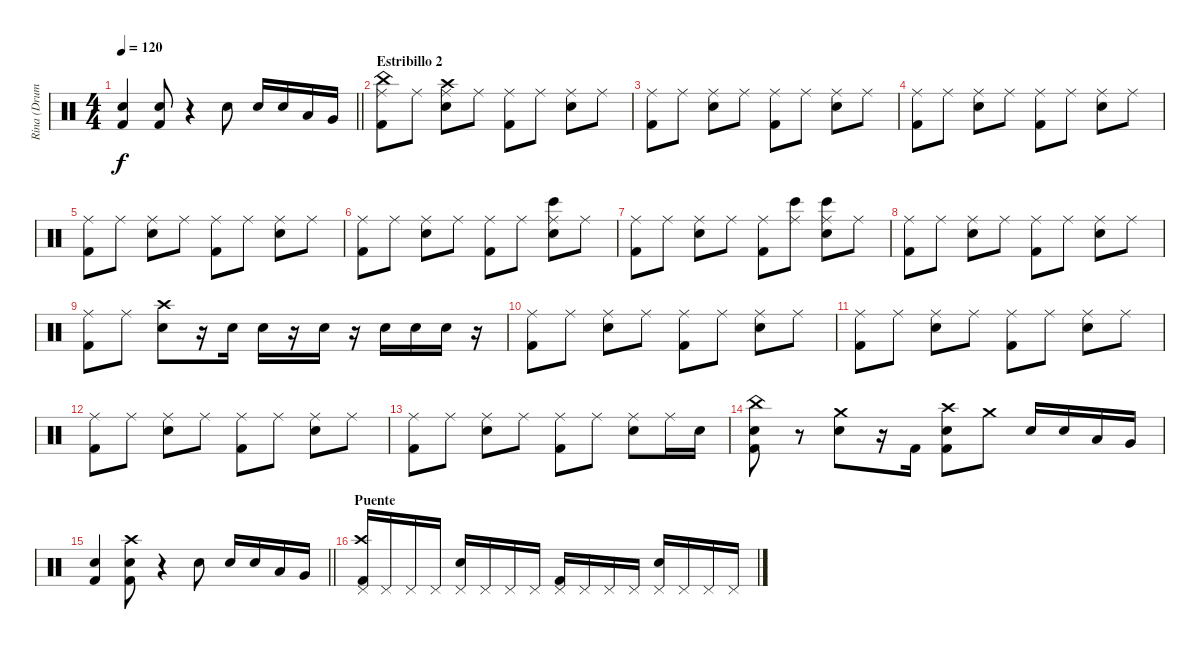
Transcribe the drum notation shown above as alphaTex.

\track ("Rina (Drums)" "Rina (Drum") {instrument percussion}
\staff {score}
\articulation defaults
\ts (4 4)
\tempo 120
\clef neutral
\barLineRight lightlight
\ks c
("Snare (hit) 2" "Kick (hit) 2").4{dy f} ("Snare (hit) 2" "Kick (hit) 2").8 r.4 "Snare (hit) 2".8 "Snare (hit) 2".16 "Snare (hit) 2".16 "Low Tom (hit)".16 "Very Low Tom (hit)".16 |
\section ("" "Estribillo 2")
("China (hit)" "Ride (middle)" "Kick (hit) 2").8 "Ride (middle)".8 ("Crash high (hit)" "Ride (middle)" "Snare (hit) 2").8 "Ride (middle)".8 ("Ride (middle)" "Kick (hit) 2").8 "Ride (middle)".8 ("Ride (middle)" "Snare (hit) 2").8 "Ride (middle)".8 |
("Ride (middle)" "Kick (hit) 2").8 "Ride (middle)".8 ("Ride (middle)" "Snare (hit) 2").8 "Ride (middle)".8 ("Ride (middle)" "Kick (hit) 2").8 "Ride (middle)".8 ("Ride (middle)" "Snare (hit) 2").8 "Ride (middle)".8 |
("Ride (middle)" "Kick (hit) 2").8 "Ride (middle)".8 ("Ride (middle)" "Snare (hit) 2").8 "Ride (middle)".8 ("Ride (middle)" "Kick (hit) 2").8 "Ride (middle)".8 ("Ride (middle)" "Snare (hit) 2").8 "Ride (middle)".8 |
("Ride (middle)" "Kick (hit) 2").8 "Ride (middle)".8 ("Ride (middle)" "Snare (hit) 2").8 "Ride (middle)".8 ("Ride (middle)" "Kick (hit) 2").8 "Ride (middle)".8 ("Ride (middle)" "Snare (hit) 2").8 "Ride (middle)".8 |
("Ride (middle)" "Kick (hit) 2").8 "Ride (middle)".8 ("Ride (middle)" "Snare (hit) 2").8 "Ride (middle)".8 ("Ride (middle)" "Kick (hit) 2").8 "Ride (middle)".8 ("Ride (middle)" "Bongo High (hit)" "Snare (hit) 2").8 "Ride (middle)".8 |
("Ride (middle)" "Kick (hit) 2").8 "Ride (middle)".8 ("Ride (middle)" "Snare (hit) 2").8 "Ride (middle)".8 ("Ride (middle)" "Kick (hit) 2").8 ("Ride (middle)" "Bongo High (hit)").8 ("Ride (middle)" "Bongo High (hit)" "Snare (hit) 2").8 "Ride (middle)".8 |
("Ride (middle)" "Kick (hit) 2").8 "Ride (middle)".8 ("Ride (middle)" "Snare (hit) 2").8 "Ride (middle)".8 ("Ride (middle)" "Kick (hit) 2").8 "Ride (middle)".8 ("Ride (middle)" "Snare (hit) 2").8 "Ride (middle)".8 |
("Ride (middle)" "Kick (hit) 2").8 "Ride (middle)".8 ("Crash high (hit)" "Snare (hit) 2").8 r.16 "Snare (hit) 2".16 "Snare (hit) 2".16 r.16 "Snare (hit) 2".16 r.16 "Snare (hit) 2".16 "Snare (hit) 2".16 "Snare (hit) 2".16 r.16 |
("Ride (middle)" "Kick (hit) 2").8 "Ride (middle)".8 ("Ride (middle)" "Snare (hit) 2").8 "Ride (middle)".8 ("Ride (middle)" "Kick (hit) 2").8 "Ride (middle)".8 ("Ride (middle)" "Snare (hit) 2").8 "Ride (middle)".8 |
("Ride (middle)" "Kick (hit) 2").8 "Ride (middle)".8 ("Ride (middle)" "Snare (hit) 2").8 "Ride (middle)".8 ("Ride (middle)" "Kick (hit) 2").8 "Ride (middle)".8 ("Ride (middle)" "Snare (hit) 2").8 "Ride (middle)".8 |
("Ride (middle)" "Kick (hit) 2").8 "Ride (middle)".8 ("Ride (middle)" "Snare (hit) 2").8 "Ride (middle)".8 ("Ride (middle)" "Kick (hit) 2").8 "Ride (middle)".8 ("Ride (middle)" "Snare (hit) 2").8 "Ride (middle)".8 |
("Ride (middle)" "Kick (hit) 2").8 "Ride (middle)".8 ("Ride (middle)" "Snare (hit) 2").8 "Ride (middle)".8 ("Ride (middle)" "Kick (hit) 2").8 "Ride (middle)".8 ("Ride (middle)" "Snare (hit) 2").8 "Ride (middle)".16 "Snare (hit) 2".16 |
("China (hit)" "Snare (hit) 2" "Kick (hit) 2").8 r.8 ("Crash medium (hit)" "Snare (hit) 2").8 r.16 "Kick (hit) 2".16 ("Crash high (hit)" "Snare (hit) 2" "Kick (hit) 2").8 "Crash medium (hit)".8 "Snare (hit) 2".16 "Snare (hit) 2".16 "Low Tom (hit)".16 "Very Low Tom (hit)".16 |
\barLineRight lightlight
("Snare (hit) 2" "Kick (hit) 2").4 ("Crash high (hit)" "Snare (hit) 2" "Kick (hit) 2").8 r.4 "Snare (hit) 2".8 "Snare (hit) 2".16 "Snare (hit) 2".16 "Low Tom (hit)".16 "Very Low Tom (hit)".16 |
\section ("" "Puente")
("Pedal Hi-Hat (hit)" "Crash high (hit)" "Kick (hit) 2").16 "Pedal Hi-Hat (hit)".16 "Pedal Hi-Hat (hit)".16 "Pedal Hi-Hat (hit)".16 ("Pedal Hi-Hat (hit)" "Snare (hit) 2").16 "Pedal Hi-Hat (hit)".16 "Pedal Hi-Hat (hit)".16 "Pedal Hi-Hat (hit)".16 ("Pedal Hi-Hat (hit)" "Kick (hit) 2").16 "Pedal Hi-Hat (hit)".16 "Pedal Hi-Hat (hit)".16 "Pedal Hi-Hat (hit)".16 ("Pedal Hi-Hat (hit)" "Snare (hit) 2").16 "Pedal Hi-Hat (hit)".16 "Pedal Hi-Hat (hit)".16 "Pedal Hi-Hat (hit)".16
